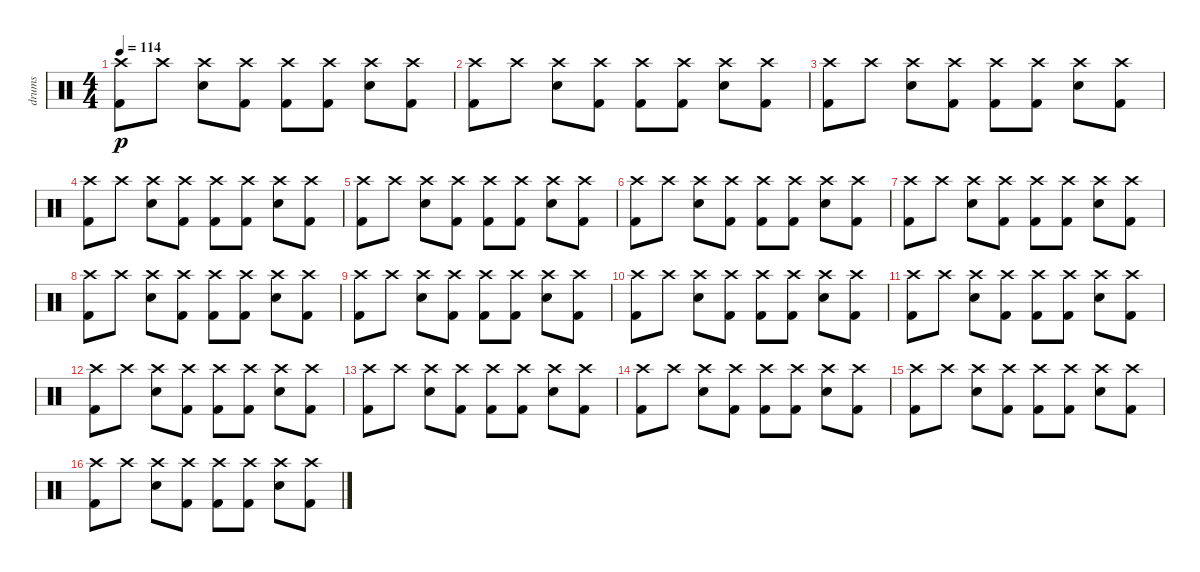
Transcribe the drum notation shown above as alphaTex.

\track ("drums" "drums") {instrument percussion}
\staff {score}
\articulation defaults
\ts (4 4)
\tempo 114
\clef neutral
\ks c
("Kick (hit) 2" "Crash high (hit)").8{dy p} "Crash high (hit)".8 ("Snare (hit) 2" "Crash high (hit)").8 ("Kick (hit) 2" "Crash high (hit)").8 ("Kick (hit) 2" "Crash high (hit)").8 ("Kick (hit) 2" "Crash high (hit)").8 ("Snare (hit) 2" "Crash high (hit)").8 ("Kick (hit) 2" "Crash high (hit)").8 |
("Kick (hit) 2" "Crash high (hit)").8 "Crash high (hit)".8 ("Snare (hit) 2" "Crash high (hit)").8 ("Kick (hit) 2" "Crash high (hit)").8 ("Kick (hit) 2" "Crash high (hit)").8 ("Kick (hit) 2" "Crash high (hit)").8 ("Snare (hit) 2" "Crash high (hit)").8 ("Kick (hit) 2" "Crash high (hit)").8 |
("Kick (hit) 2" "Crash high (hit)").8 "Crash high (hit)".8 ("Snare (hit) 2" "Crash high (hit)").8 ("Kick (hit) 2" "Crash high (hit)").8 ("Kick (hit) 2" "Crash high (hit)").8 ("Kick (hit) 2" "Crash high (hit)").8 ("Snare (hit) 2" "Crash high (hit)").8 ("Kick (hit) 2" "Crash high (hit)").8 |
("Kick (hit) 2" "Crash high (hit)").8 "Crash high (hit)".8 ("Snare (hit) 2" "Crash high (hit)").8 ("Kick (hit) 2" "Crash high (hit)").8 ("Kick (hit) 2" "Crash high (hit)").8 ("Kick (hit) 2" "Crash high (hit)").8 ("Snare (hit) 2" "Crash high (hit)").8 ("Kick (hit) 2" "Crash high (hit)").8 |
("Kick (hit) 2" "Crash high (hit)").8 "Crash high (hit)".8 ("Snare (hit) 2" "Crash high (hit)").8 ("Kick (hit) 2" "Crash high (hit)").8 ("Kick (hit) 2" "Crash high (hit)").8 ("Kick (hit) 2" "Crash high (hit)").8 ("Snare (hit) 2" "Crash high (hit)").8 ("Kick (hit) 2" "Crash high (hit)").8 |
("Kick (hit) 2" "Crash high (hit)").8 "Crash high (hit)".8 ("Snare (hit) 2" "Crash high (hit)").8 ("Kick (hit) 2" "Crash high (hit)").8 ("Kick (hit) 2" "Crash high (hit)").8 ("Kick (hit) 2" "Crash high (hit)").8 ("Snare (hit) 2" "Crash high (hit)").8 ("Kick (hit) 2" "Crash high (hit)").8 |
("Kick (hit) 2" "Crash high (hit)").8 "Crash high (hit)".8 ("Snare (hit) 2" "Crash high (hit)").8 ("Kick (hit) 2" "Crash high (hit)").8 ("Kick (hit) 2" "Crash high (hit)").8 ("Kick (hit) 2" "Crash high (hit)").8 ("Snare (hit) 2" "Crash high (hit)").8 ("Kick (hit) 2" "Crash high (hit)").8 |
("Kick (hit) 2" "Crash high (hit)").8 "Crash high (hit)".8 ("Snare (hit) 2" "Crash high (hit)").8 ("Kick (hit) 2" "Crash high (hit)").8 ("Kick (hit) 2" "Crash high (hit)").8 ("Kick (hit) 2" "Crash high (hit)").8 ("Snare (hit) 2" "Crash high (hit)").8 ("Kick (hit) 2" "Crash high (hit)").8 |
("Kick (hit) 2" "Crash high (hit)").8 "Crash high (hit)".8 ("Snare (hit) 2" "Crash high (hit)").8 ("Kick (hit) 2" "Crash high (hit)").8 ("Kick (hit) 2" "Crash high (hit)").8 ("Kick (hit) 2" "Crash high (hit)").8 ("Snare (hit) 2" "Crash high (hit)").8 ("Kick (hit) 2" "Crash high (hit)").8 |
("Kick (hit) 2" "Crash high (hit)").8 "Crash high (hit)".8 ("Snare (hit) 2" "Crash high (hit)").8 ("Kick (hit) 2" "Crash high (hit)").8 ("Kick (hit) 2" "Crash high (hit)").8 ("Kick (hit) 2" "Crash high (hit)").8 ("Snare (hit) 2" "Crash high (hit)").8 ("Kick (hit) 2" "Crash high (hit)").8 |
("Kick (hit) 2" "Crash high (hit)").8 "Crash high (hit)".8 ("Snare (hit) 2" "Crash high (hit)").8 ("Kick (hit) 2" "Crash high (hit)").8 ("Kick (hit) 2" "Crash high (hit)").8 ("Kick (hit) 2" "Crash high (hit)").8 ("Snare (hit) 2" "Crash high (hit)").8 ("Kick (hit) 2" "Crash high (hit)").8 |
("Kick (hit) 2" "Crash high (hit)").8 "Crash high (hit)".8 ("Snare (hit) 2" "Crash high (hit)").8 ("Kick (hit) 2" "Crash high (hit)").8 ("Kick (hit) 2" "Crash high (hit)").8 ("Kick (hit) 2" "Crash high (hit)").8 ("Snare (hit) 2" "Crash high (hit)").8 ("Kick (hit) 2" "Crash high (hit)").8 |
("Kick (hit) 2" "Crash high (hit)").8 "Crash high (hit)".8 ("Snare (hit) 2" "Crash high (hit)").8 ("Kick (hit) 2" "Crash high (hit)").8 ("Kick (hit) 2" "Crash high (hit)").8 ("Kick (hit) 2" "Crash high (hit)").8 ("Snare (hit) 2" "Crash high (hit)").8 ("Kick (hit) 2" "Crash high (hit)").8 |
("Kick (hit) 2" "Crash high (hit)").8 "Crash high (hit)".8 ("Snare (hit) 2" "Crash high (hit)").8 ("Kick (hit) 2" "Crash high (hit)").8 ("Kick (hit) 2" "Crash high (hit)").8 ("Kick (hit) 2" "Crash high (hit)").8 ("Snare (hit) 2" "Crash high (hit)").8 ("Kick (hit) 2" "Crash high (hit)").8 |
("Kick (hit) 2" "Crash high (hit)").8 "Crash high (hit)".8 ("Snare (hit) 2" "Crash high (hit)").8 ("Kick (hit) 2" "Crash high (hit)").8 ("Kick (hit) 2" "Crash high (hit)").8 ("Kick (hit) 2" "Crash high (hit)").8 ("Snare (hit) 2" "Crash high (hit)").8 ("Kick (hit) 2" "Crash high (hit)").8 |
("Kick (hit) 2" "Crash high (hit)").8 "Crash high (hit)".8 ("Snare (hit) 2" "Crash high (hit)").8 ("Kick (hit) 2" "Crash high (hit)").8 ("Kick (hit) 2" "Crash high (hit)").8 ("Kick (hit) 2" "Crash high (hit)").8 ("Snare (hit) 2" "Crash high (hit)").8 ("Kick (hit) 2" "Crash high (hit)").8
